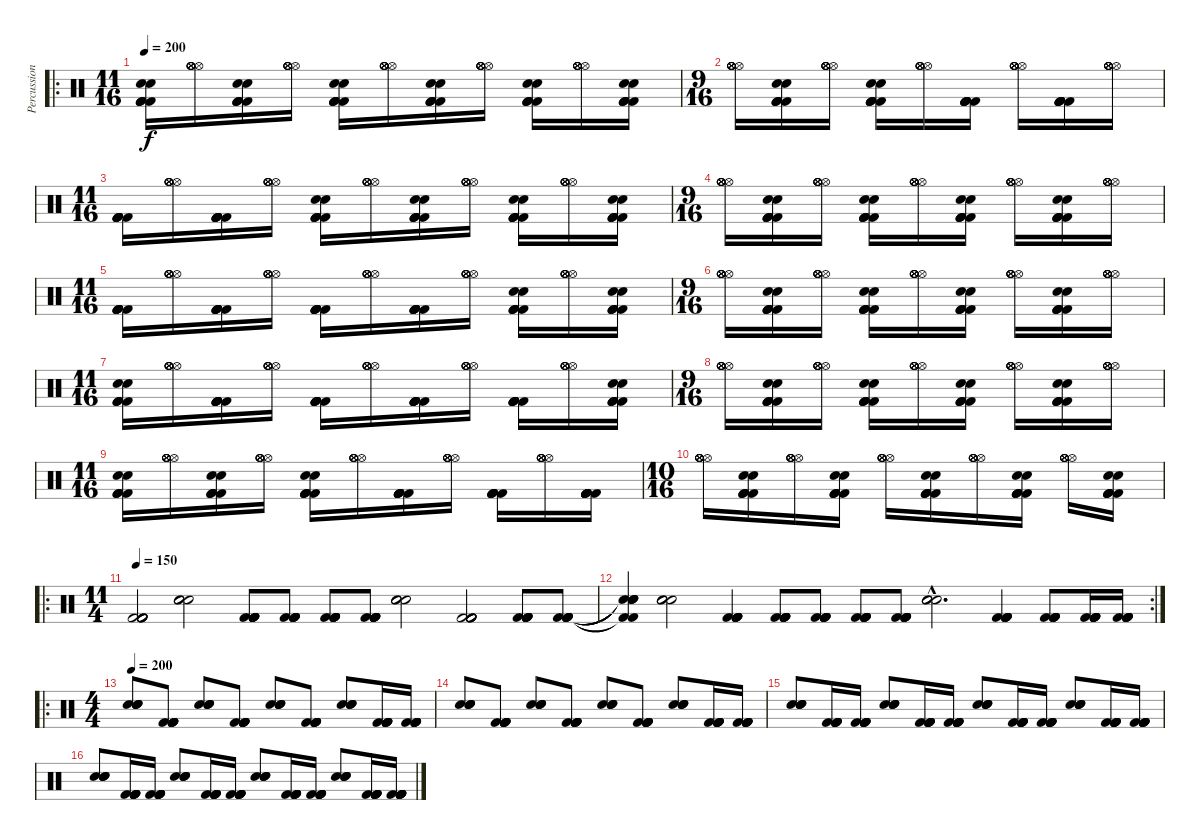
\track ("Percussion" "Percussion") {instrument percussion}
\staff {score}
\articulation defaults
\ro
\ts (11 16)
\tempo 200
\clef neutral
\ks c
("Kick (hit) 2" "Kick (hit) 2" "Kick (hit) 2" "Kick (hit) 2" "Snare (hit) 2" "Snare (hit) 2").16{dy f} ("Hi-Hat (open)" "Hi-Hat (open)" "Hi-Hat (open)" "Hi-Hat (open)" "Hi-Hat (open)" "Hi-Hat (open)").16 ("Kick (hit) 2" "Kick (hit) 2" "Kick (hit) 2" "Kick (hit) 2" "Snare (hit) 2" "Snare (hit) 2").16 ("Hi-Hat (open)" "Hi-Hat (open)" "Hi-Hat (open)" "Hi-Hat (open)" "Hi-Hat (open)" "Hi-Hat (open)").16 ("Kick (hit) 2" "Kick (hit) 2" "Kick (hit) 2" "Kick (hit) 2" "Snare (hit) 2" "Snare (hit) 2").16 ("Hi-Hat (open)" "Hi-Hat (open)" "Hi-Hat (open)" "Hi-Hat (open)" "Hi-Hat (open)" "Hi-Hat (open)").16 ("Kick (hit) 2" "Kick (hit) 2" "Kick (hit) 2" "Kick (hit) 2" "Snare (hit) 2" "Snare (hit) 2").16 ("Hi-Hat (open)" "Hi-Hat (open)" "Hi-Hat (open)" "Hi-Hat (open)" "Hi-Hat (open)" "Hi-Hat (open)").16 ("Kick (hit) 2" "Kick (hit) 2" "Kick (hit) 2" "Kick (hit) 2" "Snare (hit) 2" "Snare (hit) 2").16 ("Hi-Hat (open)" "Hi-Hat (open)" "Hi-Hat (open)" "Hi-Hat (open)" "Hi-Hat (open)" "Hi-Hat (open)").16 ("Kick (hit) 2" "Kick (hit) 2" "Kick (hit) 2" "Kick (hit) 2" "Snare (hit) 2" "Snare (hit) 2").16 |
\ts (9 16)
("Hi-Hat (open)" "Hi-Hat (open)" "Hi-Hat (open)" "Hi-Hat (open)" "Hi-Hat (open)" "Hi-Hat (open)").16 ("Kick (hit) 2" "Kick (hit) 2" "Kick (hit) 2" "Kick (hit) 2" "Snare (hit) 2" "Snare (hit) 2").16 ("Hi-Hat (open)" "Hi-Hat (open)" "Hi-Hat (open)" "Hi-Hat (open)" "Hi-Hat (open)" "Hi-Hat (open)").16 ("Kick (hit) 2" "Kick (hit) 2" "Kick (hit) 2" "Kick (hit) 2" "Snare (hit) 2" "Snare (hit) 2").16 ("Hi-Hat (open)" "Hi-Hat (open)" "Hi-Hat (open)" "Hi-Hat (open)" "Hi-Hat (open)" "Hi-Hat (open)").16 ("Kick (hit) 2" "Kick (hit) 2" "Kick (hit) 2" "Kick (hit) 2" "Kick (hit) 2" "Kick (hit) 2").16 ("Hi-Hat (open)" "Hi-Hat (open)" "Hi-Hat (open)" "Hi-Hat (open)" "Hi-Hat (open)" "Hi-Hat (open)").16 ("Kick (hit) 2" "Kick (hit) 2" "Kick (hit) 2" "Kick (hit) 2" "Kick (hit) 2" "Kick (hit) 2").16 ("Hi-Hat (open)" "Hi-Hat (open)" "Hi-Hat (open)" "Hi-Hat (open)" "Hi-Hat (open)" "Hi-Hat (open)").16 |
\ts (11 16)
("Kick (hit) 2" "Kick (hit) 2" "Kick (hit) 2" "Kick (hit) 2" "Kick (hit) 2" "Kick (hit) 2").16 ("Hi-Hat (open)" "Hi-Hat (open)" "Hi-Hat (open)" "Hi-Hat (open)" "Hi-Hat (open)" "Hi-Hat (open)").16 ("Kick (hit) 2" "Kick (hit) 2" "Kick (hit) 2" "Kick (hit) 2" "Kick (hit) 2" "Kick (hit) 2").16 ("Hi-Hat (open)" "Hi-Hat (open)" "Hi-Hat (open)" "Hi-Hat (open)" "Hi-Hat (open)" "Hi-Hat (open)").16 ("Kick (hit) 2" "Kick (hit) 2" "Kick (hit) 2" "Kick (hit) 2" "Snare (hit) 2" "Snare (hit) 2").16 ("Hi-Hat (open)" "Hi-Hat (open)" "Hi-Hat (open)" "Hi-Hat (open)" "Hi-Hat (open)" "Hi-Hat (open)").16 ("Kick (hit) 2" "Kick (hit) 2" "Kick (hit) 2" "Kick (hit) 2" "Snare (hit) 2" "Snare (hit) 2").16 ("Hi-Hat (open)" "Hi-Hat (open)" "Hi-Hat (open)" "Hi-Hat (open)" "Hi-Hat (open)" "Hi-Hat (open)").16 ("Kick (hit) 2" "Kick (hit) 2" "Kick (hit) 2" "Kick (hit) 2" "Snare (hit) 2" "Snare (hit) 2").16 ("Hi-Hat (open)" "Hi-Hat (open)" "Hi-Hat (open)" "Hi-Hat (open)" "Hi-Hat (open)" "Hi-Hat (open)").16 ("Kick (hit) 2" "Kick (hit) 2" "Kick (hit) 2" "Kick (hit) 2" "Snare (hit) 2" "Snare (hit) 2").16 |
\ts (9 16)
("Hi-Hat (open)" "Hi-Hat (open)" "Hi-Hat (open)" "Hi-Hat (open)" "Hi-Hat (open)" "Hi-Hat (open)").16 ("Kick (hit) 2" "Kick (hit) 2" "Kick (hit) 2" "Kick (hit) 2" "Snare (hit) 2" "Snare (hit) 2").16 ("Hi-Hat (open)" "Hi-Hat (open)" "Hi-Hat (open)" "Hi-Hat (open)" "Hi-Hat (open)" "Hi-Hat (open)").16 ("Kick (hit) 2" "Kick (hit) 2" "Kick (hit) 2" "Kick (hit) 2" "Snare (hit) 2" "Snare (hit) 2").16 ("Hi-Hat (open)" "Hi-Hat (open)" "Hi-Hat (open)" "Hi-Hat (open)" "Hi-Hat (open)" "Hi-Hat (open)").16 ("Kick (hit) 2" "Kick (hit) 2" "Kick (hit) 2" "Kick (hit) 2" "Snare (hit) 2" "Snare (hit) 2").16 ("Hi-Hat (open)" "Hi-Hat (open)" "Hi-Hat (open)" "Hi-Hat (open)" "Hi-Hat (open)" "Hi-Hat (open)").16 ("Kick (hit) 2" "Kick (hit) 2" "Kick (hit) 2" "Kick (hit) 2" "Snare (hit) 2" "Snare (hit) 2").16 ("Hi-Hat (open)" "Hi-Hat (open)" "Hi-Hat (open)" "Hi-Hat (open)" "Hi-Hat (open)" "Hi-Hat (open)").16 |
\ts (11 16)
("Kick (hit) 2" "Kick (hit) 2" "Kick (hit) 2" "Kick (hit) 2" "Kick (hit) 2" "Kick (hit) 2").16 ("Hi-Hat (open)" "Hi-Hat (open)" "Hi-Hat (open)" "Hi-Hat (open)" "Hi-Hat (open)" "Hi-Hat (open)").16 ("Kick (hit) 2" "Kick (hit) 2" "Kick (hit) 2" "Kick (hit) 2" "Kick (hit) 2" "Kick (hit) 2").16 ("Hi-Hat (open)" "Hi-Hat (open)" "Hi-Hat (open)" "Hi-Hat (open)" "Hi-Hat (open)" "Hi-Hat (open)").16 ("Kick (hit) 2" "Kick (hit) 2" "Kick (hit) 2" "Kick (hit) 2" "Kick (hit) 2" "Kick (hit) 2").16 ("Hi-Hat (open)" "Hi-Hat (open)" "Hi-Hat (open)" "Hi-Hat (open)" "Hi-Hat (open)" "Hi-Hat (open)").16 ("Kick (hit) 2" "Kick (hit) 2" "Kick (hit) 2" "Kick (hit) 2" "Kick (hit) 2" "Kick (hit) 2").16 ("Hi-Hat (open)" "Hi-Hat (open)" "Hi-Hat (open)" "Hi-Hat (open)" "Hi-Hat (open)" "Hi-Hat (open)").16 ("Kick (hit) 2" "Kick (hit) 2" "Kick (hit) 2" "Kick (hit) 2" "Snare (hit) 2" "Snare (hit) 2").16 ("Hi-Hat (open)" "Hi-Hat (open)" "Hi-Hat (open)" "Hi-Hat (open)" "Hi-Hat (open)" "Hi-Hat (open)").16 ("Kick (hit) 2" "Kick (hit) 2" "Kick (hit) 2" "Kick (hit) 2" "Snare (hit) 2" "Snare (hit) 2").16 |
\ts (9 16)
("Hi-Hat (open)" "Hi-Hat (open)" "Hi-Hat (open)" "Hi-Hat (open)" "Hi-Hat (open)" "Hi-Hat (open)").16 ("Kick (hit) 2" "Kick (hit) 2" "Kick (hit) 2" "Kick (hit) 2" "Snare (hit) 2" "Snare (hit) 2").16 ("Hi-Hat (open)" "Hi-Hat (open)" "Hi-Hat (open)" "Hi-Hat (open)" "Hi-Hat (open)" "Hi-Hat (open)").16 ("Kick (hit) 2" "Kick (hit) 2" "Kick (hit) 2" "Kick (hit) 2" "Snare (hit) 2" "Snare (hit) 2").16 ("Hi-Hat (open)" "Hi-Hat (open)" "Hi-Hat (open)" "Hi-Hat (open)" "Hi-Hat (open)" "Hi-Hat (open)").16 ("Kick (hit) 2" "Kick (hit) 2" "Kick (hit) 2" "Kick (hit) 2" "Snare (hit) 2" "Snare (hit) 2").16 ("Hi-Hat (open)" "Hi-Hat (open)" "Hi-Hat (open)" "Hi-Hat (open)" "Hi-Hat (open)" "Hi-Hat (open)").16 ("Kick (hit) 2" "Kick (hit) 2" "Kick (hit) 2" "Kick (hit) 2" "Snare (hit) 2" "Snare (hit) 2").16 ("Hi-Hat (open)" "Hi-Hat (open)" "Hi-Hat (open)" "Hi-Hat (open)" "Hi-Hat (open)" "Hi-Hat (open)").16 |
\ts (11 16)
("Kick (hit) 2" "Kick (hit) 2" "Kick (hit) 2" "Kick (hit) 2" "Snare (hit) 2" "Snare (hit) 2").16 ("Hi-Hat (open)" "Hi-Hat (open)" "Hi-Hat (open)" "Hi-Hat (open)" "Hi-Hat (open)" "Hi-Hat (open)").16 ("Kick (hit) 2" "Kick (hit) 2" "Kick (hit) 2" "Kick (hit) 2" "Kick (hit) 2" "Kick (hit) 2").16 ("Hi-Hat (open)" "Hi-Hat (open)" "Hi-Hat (open)" "Hi-Hat (open)" "Hi-Hat (open)" "Hi-Hat (open)").16 ("Kick (hit) 2" "Kick (hit) 2" "Kick (hit) 2" "Kick (hit) 2" "Kick (hit) 2" "Kick (hit) 2").16 ("Hi-Hat (open)" "Hi-Hat (open)" "Hi-Hat (open)" "Hi-Hat (open)" "Hi-Hat (open)" "Hi-Hat (open)").16 ("Kick (hit) 2" "Kick (hit) 2" "Kick (hit) 2" "Kick (hit) 2" "Kick (hit) 2" "Kick (hit) 2").16 ("Hi-Hat (open)" "Hi-Hat (open)" "Hi-Hat (open)" "Hi-Hat (open)" "Hi-Hat (open)" "Hi-Hat (open)").16 ("Kick (hit) 2" "Kick (hit) 2" "Kick (hit) 2" "Kick (hit) 2" "Kick (hit) 2" "Kick (hit) 2").16 ("Hi-Hat (open)" "Hi-Hat (open)" "Hi-Hat (open)" "Hi-Hat (open)" "Hi-Hat (open)" "Hi-Hat (open)").16 ("Kick (hit) 2" "Kick (hit) 2" "Kick (hit) 2" "Kick (hit) 2" "Snare (hit) 2" "Snare (hit) 2").16 |
\ts (9 16)
("Hi-Hat (open)" "Hi-Hat (open)" "Hi-Hat (open)" "Hi-Hat (open)" "Hi-Hat (open)" "Hi-Hat (open)").16 ("Kick (hit) 2" "Kick (hit) 2" "Kick (hit) 2" "Kick (hit) 2" "Snare (hit) 2" "Snare (hit) 2").16 ("Hi-Hat (open)" "Hi-Hat (open)" "Hi-Hat (open)" "Hi-Hat (open)" "Hi-Hat (open)" "Hi-Hat (open)").16 ("Kick (hit) 2" "Kick (hit) 2" "Kick (hit) 2" "Kick (hit) 2" "Snare (hit) 2" "Snare (hit) 2").16 ("Hi-Hat (open)" "Hi-Hat (open)" "Hi-Hat (open)" "Hi-Hat (open)" "Hi-Hat (open)" "Hi-Hat (open)").16 ("Kick (hit) 2" "Kick (hit) 2" "Kick (hit) 2" "Kick (hit) 2" "Snare (hit) 2" "Snare (hit) 2").16 ("Hi-Hat (open)" "Hi-Hat (open)" "Hi-Hat (open)" "Hi-Hat (open)" "Hi-Hat (open)" "Hi-Hat (open)").16 ("Kick (hit) 2" "Kick (hit) 2" "Kick (hit) 2" "Kick (hit) 2" "Snare (hit) 2" "Snare (hit) 2").16 ("Hi-Hat (open)" "Hi-Hat (open)" "Hi-Hat (open)" "Hi-Hat (open)" "Hi-Hat (open)" "Hi-Hat (open)").16 |
\ts (11 16)
("Kick (hit) 2" "Kick (hit) 2" "Kick (hit) 2" "Kick (hit) 2" "Snare (hit) 2" "Snare (hit) 2").16 ("Hi-Hat (open)" "Hi-Hat (open)" "Hi-Hat (open)" "Hi-Hat (open)" "Hi-Hat (open)" "Hi-Hat (open)").16 ("Kick (hit) 2" "Kick (hit) 2" "Kick (hit) 2" "Kick (hit) 2" "Snare (hit) 2" "Snare (hit) 2").16 ("Hi-Hat (open)" "Hi-Hat (open)" "Hi-Hat (open)" "Hi-Hat (open)" "Hi-Hat (open)" "Hi-Hat (open)").16 ("Kick (hit) 2" "Kick (hit) 2" "Kick (hit) 2" "Kick (hit) 2" "Snare (hit) 2" "Snare (hit) 2").16 ("Hi-Hat (open)" "Hi-Hat (open)" "Hi-Hat (open)" "Hi-Hat (open)" "Hi-Hat (open)" "Hi-Hat (open)").16 ("Kick (hit) 2" "Kick (hit) 2" "Kick (hit) 2" "Kick (hit) 2" "Kick (hit) 2" "Kick (hit) 2").16 ("Hi-Hat (open)" "Hi-Hat (open)" "Hi-Hat (open)" "Hi-Hat (open)" "Hi-Hat (open)" "Hi-Hat (open)").16 ("Kick (hit) 2" "Kick (hit) 2" "Kick (hit) 2" "Kick (hit) 2" "Kick (hit) 2" "Kick (hit) 2").16 ("Hi-Hat (open)" "Hi-Hat (open)" "Hi-Hat (open)" "Hi-Hat (open)" "Hi-Hat (open)" "Hi-Hat (open)").16 ("Kick (hit) 2" "Kick (hit) 2" "Kick (hit) 2" "Kick (hit) 2" "Kick (hit) 2" "Kick (hit) 2").16 |
\ts (10 16)
("Hi-Hat (open)" "Hi-Hat (open)" "Hi-Hat (open)" "Hi-Hat (open)" "Hi-Hat (open)" "Hi-Hat (open)").16 ("Kick (hit) 2" "Kick (hit) 2" "Kick (hit) 2" "Kick (hit) 2" "Snare (hit) 2" "Snare (hit) 2").16 ("Hi-Hat (open)" "Hi-Hat (open)" "Hi-Hat (open)" "Hi-Hat (open)" "Hi-Hat (open)" "Hi-Hat (open)").16 ("Kick (hit) 2" "Kick (hit) 2" "Kick (hit) 2" "Kick (hit) 2" "Snare (hit) 2" "Snare (hit) 2").16 ("Hi-Hat (open)" "Hi-Hat (open)" "Hi-Hat (open)" "Hi-Hat (open)" "Hi-Hat (open)" "Hi-Hat (open)").16 ("Kick (hit) 2" "Kick (hit) 2" "Kick (hit) 2" "Kick (hit) 2" "Snare (hit) 2" "Snare (hit) 2").16 ("Hi-Hat (open)" "Hi-Hat (open)" "Hi-Hat (open)" "Hi-Hat (open)" "Hi-Hat (open)" "Hi-Hat (open)").16 ("Kick (hit) 2" "Kick (hit) 2" "Kick (hit) 2" "Kick (hit) 2" "Snare (hit) 2" "Snare (hit) 2").16 ("Hi-Hat (open)" "Hi-Hat (open)" "Hi-Hat (open)" "Hi-Hat (open)" "Hi-Hat (open)" "Hi-Hat (open)").16 ("Kick (hit) 2" "Kick (hit) 2" "Kick (hit) 2" "Kick (hit) 2" "Snare (hit) 2" "Snare (hit) 2").16 |
\ro
\ts (11 4)
\tempo 150
("Kick (hit) 2" "Kick (hit) 2" "Kick (hit) 2" "Kick (hit) 2" "Kick (hit) 2" "Kick (hit) 2").2 ("Snare (hit) 2" "Snare (hit) 2" "Snare (hit) 2" "Snare (hit) 2").2 ("Kick (hit) 2" "Kick (hit) 2" "Kick (hit) 2" "Kick (hit) 2" "Kick (hit) 2" "Kick (hit) 2").8 ("Kick (hit) 2" "Kick (hit) 2" "Kick (hit) 2" "Kick (hit) 2" "Kick (hit) 2" "Kick (hit) 2").8 ("Kick (hit) 2" "Kick (hit) 2" "Kick (hit) 2" "Kick (hit) 2" "Kick (hit) 2" "Kick (hit) 2").8 ("Kick (hit) 2" "Kick (hit) 2" "Kick (hit) 2" "Kick (hit) 2" "Kick (hit) 2" "Kick (hit) 2").8 ("Snare (hit) 2" "Snare (hit) 2" "Snare (hit) 2" "Snare (hit) 2").2 ("Kick (hit) 2" "Kick (hit) 2" "Kick (hit) 2" "Kick (hit) 2" "Kick (hit) 2" "Kick (hit) 2").2 ("Kick (hit) 2" "Kick (hit) 2" "Kick (hit) 2" "Kick (hit) 2" "Kick (hit) 2" "Kick (hit) 2").8 ("Kick (hit) 2" "Kick (hit) 2" "Kick (hit) 2" "Kick (hit) 2" "Kick (hit) 2" "Kick (hit) 2").8 |
\rc 2
("Kick (hit) 2"{t} "Kick (hit) 2"{t} "Snare (hit) 2"{t} "Snare (hit) 2"{t} "Snare (hit) 2"{t} "Snare (hit) 2"{t}).4 ("Snare (hit) 2" "Snare (hit) 2" "Snare (hit) 2" "Snare (hit) 2").2 ("Kick (hit) 2" "Kick (hit) 2" "Kick (hit) 2" "Kick (hit) 2" "Kick (hit) 2" "Kick (hit) 2").4 ("Kick (hit) 2" "Kick (hit) 2" "Kick (hit) 2" "Kick (hit) 2" "Kick (hit) 2" "Kick (hit) 2").8 ("Kick (hit) 2" "Kick (hit) 2" "Kick (hit) 2" "Kick (hit) 2" "Kick (hit) 2" "Kick (hit) 2").8 ("Kick (hit) 2" "Kick (hit) 2" "Kick (hit) 2" "Kick (hit) 2" "Kick (hit) 2" "Kick (hit) 2").8 ("Kick (hit) 2" "Kick (hit) 2" "Kick (hit) 2" "Kick (hit) 2" "Kick (hit) 2" "Kick (hit) 2").8 ("Snare (hit) 2"{hac} "Snare (hit) 2"{hac} "Snare (hit) 2"{hac} "Snare (hit) 2"{hac}).2{d} ("Kick (hit) 2" "Kick (hit) 2" "Kick (hit) 2" "Kick (hit) 2" "Kick (hit) 2" "Kick (hit) 2").4 ("Kick (hit) 2" "Kick (hit) 2" "Kick (hit) 2" "Kick (hit) 2" "Kick (hit) 2" "Kick (hit) 2").8 ("Kick (hit) 2" "Kick (hit) 2" "Kick (hit) 2" "Kick (hit) 2" "Kick (hit) 2" "Kick (hit) 2").16 ("Kick (hit) 2" "Kick (hit) 2" "Kick (hit) 2" "Kick (hit) 2" "Kick (hit) 2" "Kick (hit) 2").16 |
\ro
\ts (4 4)
\tempo 200
("Snare (hit) 2" "Snare (hit) 2" "Snare (hit) 2" "Snare (hit) 2").8 ("Kick (hit) 2" "Kick (hit) 2" "Kick (hit) 2" "Kick (hit) 2" "Kick (hit) 2" "Kick (hit) 2").8 ("Snare (hit) 2" "Snare (hit) 2" "Snare (hit) 2" "Snare (hit) 2").8 ("Kick (hit) 2" "Kick (hit) 2" "Kick (hit) 2" "Kick (hit) 2" "Kick (hit) 2" "Kick (hit) 2").8 ("Snare (hit) 2" "Snare (hit) 2" "Snare (hit) 2" "Snare (hit) 2").8 ("Kick (hit) 2" "Kick (hit) 2" "Kick (hit) 2" "Kick (hit) 2" "Kick (hit) 2" "Kick (hit) 2").8 ("Snare (hit) 2" "Snare (hit) 2" "Snare (hit) 2" "Snare (hit) 2").8 ("Kick (hit) 2" "Kick (hit) 2" "Kick (hit) 2" "Kick (hit) 2" "Kick (hit) 2" "Kick (hit) 2").16 ("Kick (hit) 2" "Kick (hit) 2" "Kick (hit) 2" "Kick (hit) 2" "Kick (hit) 2" "Kick (hit) 2").16 |
("Snare (hit) 2" "Snare (hit) 2" "Snare (hit) 2" "Snare (hit) 2").8 ("Kick (hit) 2" "Kick (hit) 2" "Kick (hit) 2" "Kick (hit) 2" "Kick (hit) 2" "Kick (hit) 2").8 ("Snare (hit) 2" "Snare (hit) 2" "Snare (hit) 2" "Snare (hit) 2").8 ("Kick (hit) 2" "Kick (hit) 2" "Kick (hit) 2" "Kick (hit) 2" "Kick (hit) 2" "Kick (hit) 2").8 ("Snare (hit) 2" "Snare (hit) 2" "Snare (hit) 2" "Snare (hit) 2").8 ("Kick (hit) 2" "Kick (hit) 2" "Kick (hit) 2" "Kick (hit) 2" "Kick (hit) 2" "Kick (hit) 2").8 ("Snare (hit) 2" "Snare (hit) 2" "Snare (hit) 2" "Snare (hit) 2").8 ("Kick (hit) 2" "Kick (hit) 2" "Kick (hit) 2" "Kick (hit) 2" "Kick (hit) 2" "Kick (hit) 2").16 ("Kick (hit) 2" "Kick (hit) 2" "Kick (hit) 2" "Kick (hit) 2" "Kick (hit) 2" "Kick (hit) 2").16 |
("Snare (hit) 2" "Snare (hit) 2" "Snare (hit) 2" "Snare (hit) 2").8 ("Kick (hit) 2" "Kick (hit) 2" "Kick (hit) 2" "Kick (hit) 2" "Kick (hit) 2" "Kick (hit) 2").16 ("Kick (hit) 2" "Kick (hit) 2" "Kick (hit) 2" "Kick (hit) 2" "Kick (hit) 2" "Kick (hit) 2").16 ("Snare (hit) 2" "Snare (hit) 2" "Snare (hit) 2" "Snare (hit) 2").8 ("Kick (hit) 2" "Kick (hit) 2" "Kick (hit) 2" "Kick (hit) 2" "Kick (hit) 2" "Kick (hit) 2").16 ("Kick (hit) 2" "Kick (hit) 2" "Kick (hit) 2" "Kick (hit) 2" "Kick (hit) 2" "Kick (hit) 2").16 ("Snare (hit) 2" "Snare (hit) 2" "Snare (hit) 2" "Snare (hit) 2").8 ("Kick (hit) 2" "Kick (hit) 2" "Kick (hit) 2" "Kick (hit) 2" "Kick (hit) 2" "Kick (hit) 2").16 ("Kick (hit) 2" "Kick (hit) 2" "Kick (hit) 2" "Kick (hit) 2" "Kick (hit) 2" "Kick (hit) 2").16 ("Snare (hit) 2" "Snare (hit) 2" "Snare (hit) 2" "Snare (hit) 2").8 ("Kick (hit) 2" "Kick (hit) 2" "Kick (hit) 2" "Kick (hit) 2" "Kick (hit) 2" "Kick (hit) 2").16 ("Kick (hit) 2" "Kick (hit) 2" "Kick (hit) 2" "Kick (hit) 2" "Kick (hit) 2" "Kick (hit) 2").16 |
("Snare (hit) 2" "Snare (hit) 2" "Snare (hit) 2" "Snare (hit) 2").8 ("Kick (hit) 2" "Kick (hit) 2" "Kick (hit) 2" "Kick (hit) 2" "Kick (hit) 2" "Kick (hit) 2").16 ("Kick (hit) 2" "Kick (hit) 2" "Kick (hit) 2" "Kick (hit) 2" "Kick (hit) 2" "Kick (hit) 2").16 ("Snare (hit) 2" "Snare (hit) 2" "Snare (hit) 2" "Snare (hit) 2").8 ("Kick (hit) 2" "Kick (hit) 2" "Kick (hit) 2" "Kick (hit) 2" "Kick (hit) 2" "Kick (hit) 2").16 ("Kick (hit) 2" "Kick (hit) 2" "Kick (hit) 2" "Kick (hit) 2" "Kick (hit) 2" "Kick (hit) 2").16 ("Snare (hit) 2" "Snare (hit) 2" "Snare (hit) 2" "Snare (hit) 2").8 ("Kick (hit) 2" "Kick (hit) 2" "Kick (hit) 2" "Kick (hit) 2" "Kick (hit) 2" "Kick (hit) 2").16 ("Kick (hit) 2" "Kick (hit) 2" "Kick (hit) 2" "Kick (hit) 2" "Kick (hit) 2" "Kick (hit) 2").16 ("Snare (hit) 2" "Snare (hit) 2" "Snare (hit) 2" "Snare (hit) 2").8 ("Kick (hit) 2" "Kick (hit) 2" "Kick (hit) 2" "Kick (hit) 2" "Kick (hit) 2" "Kick (hit) 2").16 ("Kick (hit) 2" "Kick (hit) 2" "Kick (hit) 2" "Kick (hit) 2" "Kick (hit) 2" "Kick (hit) 2").16
